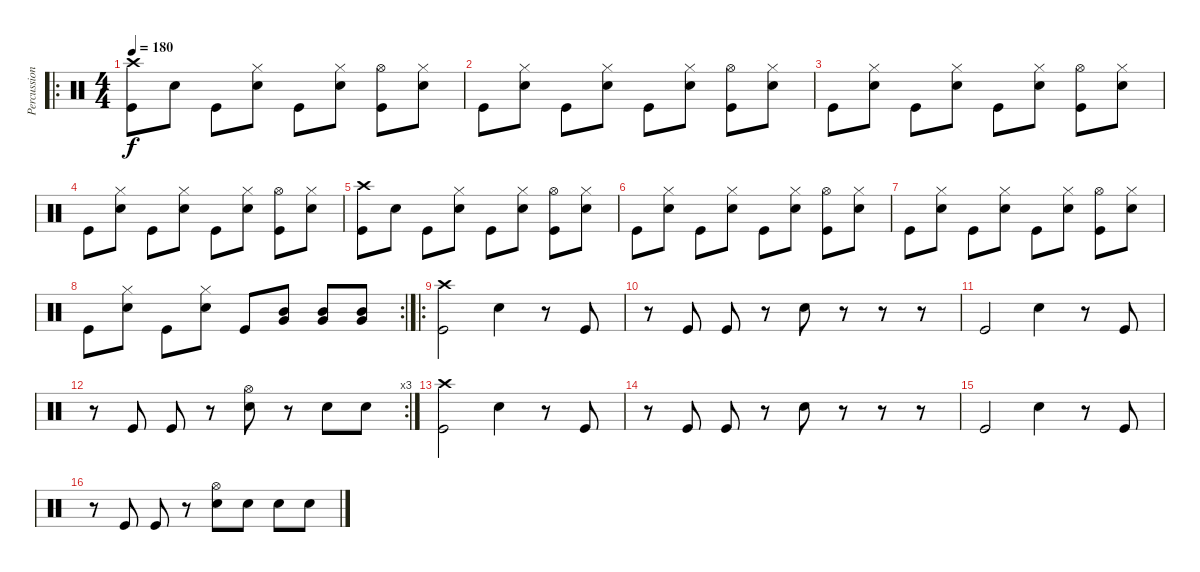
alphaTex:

\track ("Percussion" "Percussion") {instrument percussion}
\staff {score}
\articulation defaults
\ro
\ts (4 4)
\tempo 180
\clef neutral
\ks c
("Kick (hit)" "Crash high (hit)").8{dy f} "Snare (hit) 2".8 "Kick (hit)".8 ("Snare (hit) 2" "Hi-Hat (closed)").8 "Kick (hit)".8 ("Snare (hit) 2" "Hi-Hat (closed)").8 ("Kick (hit)" "Hi-Hat (open)").8 ("Snare (hit) 2" "Hi-Hat (closed)").8 |
"Kick (hit)".8 ("Snare (hit) 2" "Hi-Hat (closed)").8 "Kick (hit)".8 ("Snare (hit) 2" "Hi-Hat (closed)").8 "Kick (hit)".8 ("Snare (hit) 2" "Hi-Hat (closed)").8 ("Kick (hit)" "Hi-Hat (open)").8 ("Snare (hit) 2" "Hi-Hat (closed)").8 |
"Kick (hit)".8 ("Snare (hit) 2" "Hi-Hat (closed)").8 "Kick (hit)".8 ("Snare (hit) 2" "Hi-Hat (closed)").8 "Kick (hit)".8 ("Snare (hit) 2" "Hi-Hat (closed)").8 ("Kick (hit)" "Hi-Hat (open)").8 ("Snare (hit) 2" "Hi-Hat (closed)").8 |
"Kick (hit)".8 ("Snare (hit) 2" "Hi-Hat (closed)").8 "Kick (hit)".8 ("Snare (hit) 2" "Hi-Hat (closed)").8 "Kick (hit)".8 ("Snare (hit) 2" "Hi-Hat (closed)").8 ("Kick (hit)" "Hi-Hat (open)").8 ("Snare (hit) 2" "Hi-Hat (closed)").8 |
("Kick (hit)" "Crash high (hit)").8 "Snare (hit) 2".8 "Kick (hit)".8 ("Snare (hit) 2" "Hi-Hat (closed)").8 "Kick (hit)".8 ("Snare (hit) 2" "Hi-Hat (closed)").8 ("Kick (hit)" "Hi-Hat (open)").8 ("Snare (hit) 2" "Hi-Hat (closed)").8 |
"Kick (hit)".8 ("Snare (hit) 2" "Hi-Hat (closed)").8 "Kick (hit)".8 ("Snare (hit) 2" "Hi-Hat (closed)").8 "Kick (hit)".8 ("Snare (hit) 2" "Hi-Hat (closed)").8 ("Kick (hit)" "Hi-Hat (open)").8 ("Snare (hit) 2" "Hi-Hat (closed)").8 |
"Kick (hit)".8 ("Snare (hit) 2" "Hi-Hat (closed)").8 "Kick (hit)".8 ("Snare (hit) 2" "Hi-Hat (closed)").8 "Kick (hit)".8 ("Snare (hit) 2" "Hi-Hat (closed)").8 ("Kick (hit)" "Hi-Hat (open)").8 ("Snare (hit) 2" "Hi-Hat (closed)").8 |
\rc 2 "Kick (hit)".8
("Snare (hit) 2" "Hi-Hat (closed)").8 "Kick (hit)".8 ("Snare (hit) 2" "Hi-Hat (closed)").8 "Kick (hit)".8 ("Very Low Tom (hit)" "Mid Tom (hit)").8 ("Mid Tom (hit)" "Very Low Tom (hit)").8 ("Mid Tom (hit)" "Very Low Tom (hit)").8 |
\ro
("Kick (hit)" "Crash high (hit)").2 "Snare (hit) 2".4 r.8 "Kick (hit)".8 |
r.8 "Kick (hit)".8 "Kick (hit)".8 r.8 "Snare (hit) 2".8 r.8 r.8 r.8 |
"Kick (hit)".2 "Snare (hit) 2".4 r.8 "Kick (hit)".8 |
\rc 3
r.8 "Kick (hit)".8 "Kick (hit)".8 r.8 ("Snare (hit) 2" "Hi-Hat (open)").8 r.8 "Snare (hit) 2".8 "Snare (hit) 2".8 |
("Kick (hit)" "Crash high (hit)").2 "Snare (hit) 2".4 r.8 "Kick (hit)".8 |
r.8 "Kick (hit)".8 "Kick (hit)".8 r.8 "Snare (hit) 2".8 r.8 r.8 r.8 |
"Kick (hit)".2 "Snare (hit) 2".4 r.8 "Kick (hit)".8 |
r.8 "Kick (hit)".8 "Kick (hit)".8 r.8 ("Snare (hit) 2" "Hi-Hat (open)").8 "Snare (hit) 2".8 "Snare (hit) 2".8 "Snare (hit) 2".8
